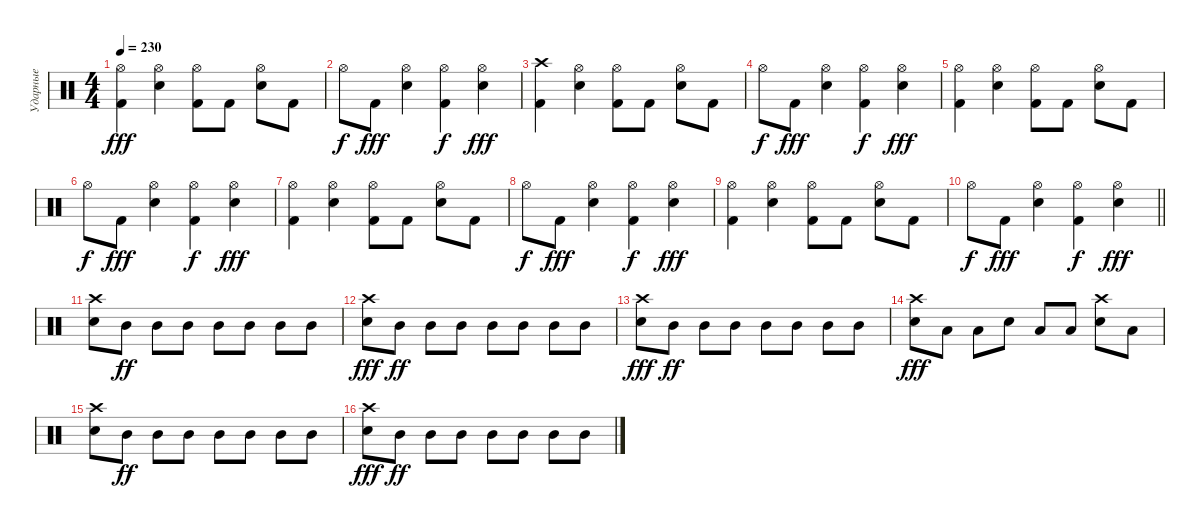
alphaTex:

\track ("Ударные" "Ударные") {instrument percussion}
\staff {score}
\articulation defaults
\ts (4 4)
\tempo 230
\clef neutral
\ks c
("Kick (hit) 2" "Hi-Hat (open)").4{dy fff} ("Snare (hit) 2" "Hi-Hat (open)").4 ("Kick (hit) 2" "Hi-Hat (open)").8 "Kick (hit) 2".8 ("Snare (hit) 2" "Hi-Hat (open)").8 "Kick (hit) 2".8 |
"Hi-Hat (open)".8{dy f} "Kick (hit) 2".8{dy fff} ("Snare (hit) 2" "Hi-Hat (open)").4 ("Kick (hit) 2" "Hi-Hat (open)").4{dy f} ("Snare (hit) 2" "Hi-Hat (open)").4{dy fff} |
("Kick (hit) 2" "Crash high (hit)").4 ("Snare (hit) 2" "Hi-Hat (open)").4 ("Kick (hit) 2" "Hi-Hat (open)").8 "Kick (hit) 2".8 ("Snare (hit) 2" "Hi-Hat (open)").8 "Kick (hit) 2".8 |
"Hi-Hat (open)".8{dy f} "Kick (hit) 2".8{dy fff} ("Snare (hit) 2" "Hi-Hat (open)").4 ("Kick (hit) 2" "Hi-Hat (open)").4{dy f} ("Snare (hit) 2" "Hi-Hat (open)").4{dy fff} |
("Kick (hit) 2" "Hi-Hat (open)").4 ("Snare (hit) 2" "Hi-Hat (open)").4 ("Kick (hit) 2" "Hi-Hat (open)").8 "Kick (hit) 2".8 ("Snare (hit) 2" "Hi-Hat (open)").8 "Kick (hit) 2".8 |
"Hi-Hat (open)".8{dy f} "Kick (hit) 2".8{dy fff} ("Snare (hit) 2" "Hi-Hat (open)").4 ("Kick (hit) 2" "Hi-Hat (open)").4{dy f} ("Snare (hit) 2" "Hi-Hat (open)").4{dy fff} |
("Kick (hit) 2" "Hi-Hat (open)").4 ("Snare (hit) 2" "Hi-Hat (open)").4 ("Kick (hit) 2" "Hi-Hat (open)").8 "Kick (hit) 2".8 ("Snare (hit) 2" "Hi-Hat (open)").8 "Kick (hit) 2".8 |
"Hi-Hat (open)".8{dy f} "Kick (hit) 2".8{dy fff} ("Snare (hit) 2" "Hi-Hat (open)").4 ("Kick (hit) 2" "Hi-Hat (open)").4{dy f} ("Snare (hit) 2" "Hi-Hat (open)").4{dy fff} |
("Kick (hit) 2" "Hi-Hat (open)").4 ("Snare (hit) 2" "Hi-Hat (open)").4 ("Kick (hit) 2" "Hi-Hat (open)").8 "Kick (hit) 2".8 ("Snare (hit) 2" "Hi-Hat (open)").8 "Kick (hit) 2".8 |
\barLineRight lightlight "Hi-Hat (open)".8{dy f} "Kick (hit) 2".8{dy fff}
("Snare (hit) 2" "Hi-Hat (open)").4 ("Kick (hit) 2" "Hi-Hat (open)").4{dy f} ("Snare (hit) 2" "Hi-Hat (open)").4{dy fff} |
("Snare (hit) 2" "Crash high (hit)").8 "Mid Tom (hit)".8{dy ff} "Mid Tom (hit)".8 "Mid Tom (hit)".8 "Mid Tom (hit)".8 "Mid Tom (hit)".8 "Mid Tom (hit)".8 "Mid Tom (hit)".8 |
("Snare (hit) 2" "Crash high (hit)").8{dy fff} "Mid Tom (hit)".8{dy ff} "Mid Tom (hit)".8 "Mid Tom (hit)".8 "Mid Tom (hit)".8 "Mid Tom (hit)".8 "Mid Tom (hit)".8 "Mid Tom (hit)".8 |
("Snare (hit) 2" "Crash high (hit)").8{dy fff} "Mid Tom (hit)".8{dy ff} "Mid Tom (hit)".8 "Mid Tom (hit)".8 "Mid Tom (hit)".8 "Mid Tom (hit)".8 "Mid Tom (hit)".8 "Mid Tom (hit)".8 |
("Snare (hit) 2" "Crash high (hit)").8{dy fff} "Low Tom (hit)".8 "Low Tom (hit)".8 "Snare (hit) 2".8 "Low Tom (hit)".8 "Low Tom (hit)".8 ("Snare (hit) 2" "Crash high (hit)").8 "Low Tom (hit)".8 |
("Snare (hit) 2" "Crash high (hit)").8 "Mid Tom (hit)".8{dy ff} "Mid Tom (hit)".8 "Mid Tom (hit)".8 "Mid Tom (hit)".8 "Mid Tom (hit)".8 "Mid Tom (hit)".8 "Mid Tom (hit)".8 |
("Snare (hit) 2" "Crash high (hit)").8{dy fff} "Mid Tom (hit)".8{dy ff} "Mid Tom (hit)".8 "Mid Tom (hit)".8 "Mid Tom (hit)".8 "Mid Tom (hit)".8 "Mid Tom (hit)".8 "Mid Tom (hit)".8
